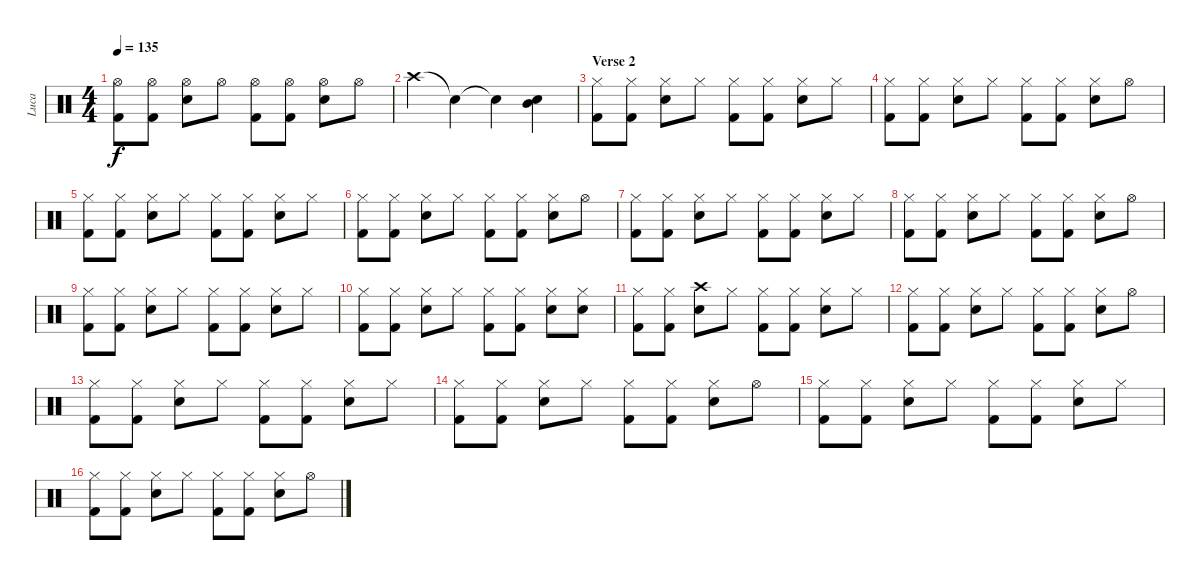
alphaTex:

\track ("Luca" "Luca") {instrument percussion}
\staff {score}
\articulation defaults
\ts (4 4)
\tempo 135
\clef neutral
\ks c
("Hi-Hat (open)" "Kick (hit) 2").8{dy f} ("Hi-Hat (open)" "Kick (hit) 2").8 ("Hi-Hat (open)" "Snare (hit) 2").8 "Hi-Hat (open)".8 ("Hi-Hat (open)" "Kick (hit) 2").8 ("Hi-Hat (open)" "Kick (hit) 2").8 ("Hi-Hat (open)" "Snare (hit) 2").8 "Hi-Hat (open)".8 |
"Crash high (hit)".4 "Snare (hit)"{t}.4 "Snare (hit)"{t}.4 ("Mid Tom (hit)" "Snare (hit) 2").4 |
\section ("" "Verse 2")
("Hi-Hat (closed)" "Kick (hit) 2").8 ("Hi-Hat (closed)" "Kick (hit) 2").8 ("Hi-Hat (closed)" "Snare (hit) 2").8 "Hi-Hat (closed)".8 ("Hi-Hat (closed)" "Kick (hit) 2").8 ("Hi-Hat (closed)" "Kick (hit) 2").8 ("Hi-Hat (closed)" "Snare (hit) 2").8 "Hi-Hat (closed)".8 |
("Hi-Hat (closed)" "Kick (hit) 2").8 ("Hi-Hat (closed)" "Kick (hit) 2").8 ("Hi-Hat (closed)" "Snare (hit) 2").8 "Hi-Hat (closed)".8 ("Hi-Hat (closed)" "Kick (hit) 2").8 ("Hi-Hat (closed)" "Kick (hit) 2").8 ("Hi-Hat (closed)" "Snare (hit) 2").8 "Hi-Hat (open)".8 |
("Hi-Hat (closed)" "Kick (hit) 2").8 ("Hi-Hat (closed)" "Kick (hit) 2").8 ("Hi-Hat (closed)" "Snare (hit) 2").8 "Hi-Hat (closed)".8 ("Hi-Hat (closed)" "Kick (hit) 2").8 ("Hi-Hat (closed)" "Kick (hit) 2").8 ("Hi-Hat (closed)" "Snare (hit) 2").8 "Hi-Hat (closed)".8 |
("Hi-Hat (closed)" "Kick (hit) 2").8 ("Hi-Hat (closed)" "Kick (hit) 2").8 ("Hi-Hat (closed)" "Snare (hit) 2").8 "Hi-Hat (closed)".8 ("Hi-Hat (closed)" "Kick (hit) 2").8 ("Hi-Hat (closed)" "Kick (hit) 2").8 ("Hi-Hat (closed)" "Snare (hit) 2").8 "Hi-Hat (open)".8 |
("Hi-Hat (closed)" "Kick (hit) 2").8 ("Hi-Hat (closed)" "Kick (hit) 2").8 ("Hi-Hat (closed)" "Snare (hit) 2").8 "Hi-Hat (closed)".8 ("Hi-Hat (closed)" "Kick (hit) 2").8 ("Hi-Hat (closed)" "Kick (hit) 2").8 ("Hi-Hat (closed)" "Snare (hit) 2").8 "Hi-Hat (closed)".8 |
("Hi-Hat (closed)" "Kick (hit) 2").8 ("Hi-Hat (closed)" "Kick (hit) 2").8 ("Hi-Hat (closed)" "Snare (hit) 2").8 "Hi-Hat (closed)".8 ("Hi-Hat (closed)" "Kick (hit) 2").8 ("Hi-Hat (closed)" "Kick (hit) 2").8 ("Hi-Hat (closed)" "Snare (hit) 2").8 "Hi-Hat (open)".8 |
("Hi-Hat (closed)" "Kick (hit) 2").8 ("Hi-Hat (closed)" "Kick (hit) 2").8 ("Hi-Hat (closed)" "Snare (hit) 2").8 "Hi-Hat (closed)".8 ("Hi-Hat (closed)" "Kick (hit) 2").8 ("Hi-Hat (closed)" "Kick (hit) 2").8 ("Hi-Hat (closed)" "Snare (hit) 2").8 "Hi-Hat (closed)".8 |
("Hi-Hat (closed)" "Kick (hit) 2").8 ("Hi-Hat (closed)" "Kick (hit) 2").8 ("Hi-Hat (closed)" "Snare (hit) 2").8 "Hi-Hat (closed)".8 ("Hi-Hat (closed)" "Kick (hit) 2").8 ("Hi-Hat (closed)" "Kick (hit) 2").8 ("Hi-Hat (closed)" "Snare (hit) 2").8 ("Hi-Hat (closed)" "Snare (hit) 2").8 |
("Hi-Hat (closed)" "Kick (hit) 2").8 ("Hi-Hat (closed)" "Kick (hit) 2").8 ("Crash high (hit)" "Snare (hit) 2").8 "Hi-Hat (closed)".8 ("Hi-Hat (closed)" "Kick (hit) 2").8 ("Hi-Hat (closed)" "Kick (hit) 2").8 ("Hi-Hat (closed)" "Snare (hit) 2").8 "Hi-Hat (closed)".8 |
("Hi-Hat (closed)" "Kick (hit) 2").8 ("Hi-Hat (closed)" "Kick (hit) 2").8 ("Hi-Hat (closed)" "Snare (hit) 2").8 "Hi-Hat (closed)".8 ("Hi-Hat (closed)" "Kick (hit) 2").8 ("Hi-Hat (closed)" "Kick (hit) 2").8 ("Hi-Hat (closed)" "Snare (hit) 2").8 "Hi-Hat (open)".8 |
("Hi-Hat (closed)" "Kick (hit) 2").8 ("Hi-Hat (closed)" "Kick (hit) 2").8 ("Hi-Hat (closed)" "Snare (hit) 2").8 "Hi-Hat (closed)".8 ("Hi-Hat (closed)" "Kick (hit) 2").8 ("Hi-Hat (closed)" "Kick (hit) 2").8 ("Hi-Hat (closed)" "Snare (hit) 2").8 "Hi-Hat (closed)".8 |
("Hi-Hat (closed)" "Kick (hit) 2").8 ("Hi-Hat (closed)" "Kick (hit) 2").8 ("Hi-Hat (closed)" "Snare (hit) 2").8 "Hi-Hat (closed)".8 ("Hi-Hat (closed)" "Kick (hit) 2").8 ("Hi-Hat (closed)" "Kick (hit) 2").8 ("Hi-Hat (closed)" "Snare (hit) 2").8 "Hi-Hat (open)".8 |
("Hi-Hat (closed)" "Kick (hit) 2").8 ("Hi-Hat (closed)" "Kick (hit) 2").8 ("Hi-Hat (closed)" "Snare (hit) 2").8 "Hi-Hat (closed)".8 ("Hi-Hat (closed)" "Kick (hit) 2").8 ("Hi-Hat (closed)" "Kick (hit) 2").8 ("Hi-Hat (closed)" "Snare (hit) 2").8 "Hi-Hat (closed)".8 |
("Hi-Hat (closed)" "Kick (hit) 2").8 ("Hi-Hat (closed)" "Kick (hit) 2").8 ("Hi-Hat (closed)" "Snare (hit) 2").8 "Hi-Hat (closed)".8 ("Hi-Hat (closed)" "Kick (hit) 2").8 ("Hi-Hat (closed)" "Kick (hit) 2").8 ("Hi-Hat (closed)" "Snare (hit) 2").8 "Hi-Hat (open)".8
